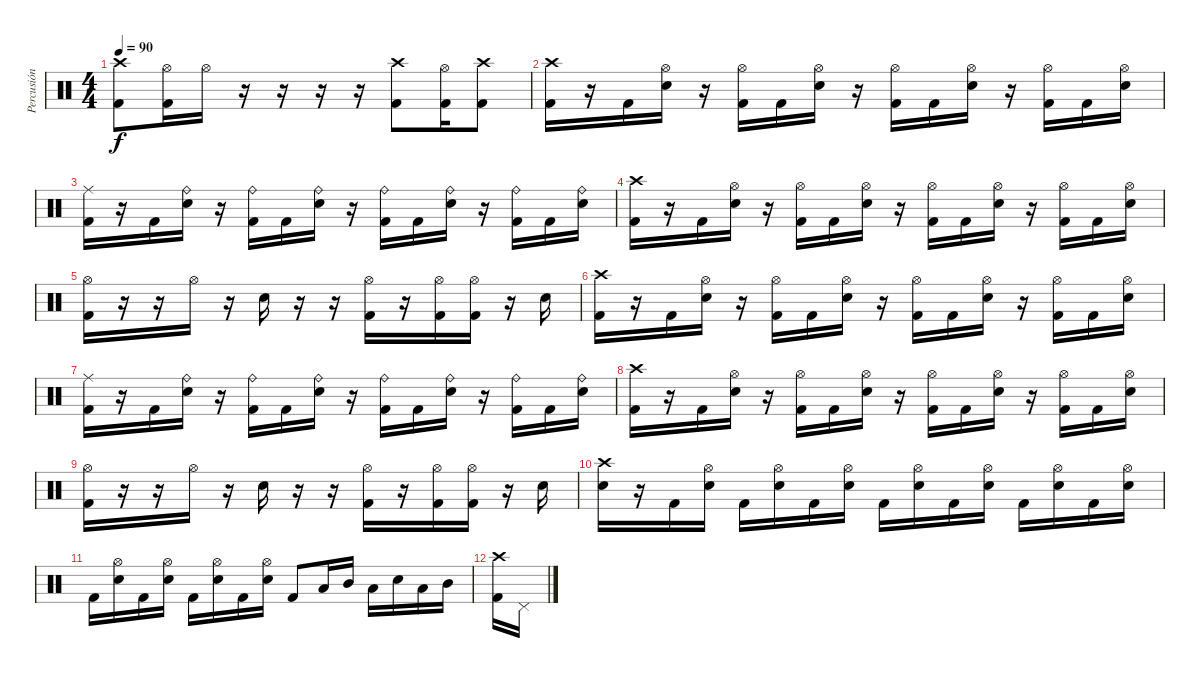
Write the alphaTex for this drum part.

\track ("Percusión" "Percusión") {instrument percussion}
\staff {score}
\articulation defaults
\ts (4 4)
\tempo 90
\clef neutral
\ks c
("Crash high (hit)" "Kick (hit) 2").8{dy f} ("Hi-Hat (open)" "Kick (hit) 2").16 "Hi-Hat (open)".16 r.16 r.16 r.16 r.16 ("Crash high (hit)" "Kick (hit) 2").8 ("Hi-Hat (open)" "Kick (hit) 2").16 ("Crash high (hit)" "Kick (hit) 2").8 |
("Crash high (hit)" "Kick (hit) 2").16 r.16 "Kick (hit) 2".16 ("Hi-Hat (open)" "Electric Snare (hit)").16 r.16 ("Hi-Hat (open)" "Kick (hit) 2").16 "Kick (hit) 2".16 ("Hi-Hat (open)" "Electric Snare (hit)").16 r.16 ("Hi-Hat (open)" "Kick (hit) 2").16 "Kick (hit) 2".16 ("Hi-Hat (open)" "Electric Snare (hit)").16 r.16 ("Hi-Hat (open)" "Kick (hit) 2").16 "Kick (hit) 2".16 ("Hi-Hat (open)" "Electric Snare (hit)").16 |
("Ride (middle)" "Kick (hit) 2").16 r.16 "Kick (hit) 2".16 ("Ride (bell)" "Electric Snare (hit)").16 r.16 ("Ride (bell)" "Kick (hit) 2").16 "Kick (hit) 2".16 ("Ride (bell)" "Electric Snare (hit)").16 r.16 ("Ride (bell)" "Kick (hit) 2").16 "Kick (hit) 2".16 ("Ride (bell)" "Electric Snare (hit)").16 r.16 ("Ride (bell)" "Kick (hit) 2").16 "Kick (hit) 2".16 ("Ride (bell)" "Electric Snare (hit)").16 |
("Crash high (hit)" "Kick (hit) 2").16 r.16 "Kick (hit) 2".16 ("Hi-Hat (open)" "Electric Snare (hit)").16 r.16 ("Hi-Hat (open)" "Kick (hit) 2").16 "Kick (hit) 2".16 ("Hi-Hat (open)" "Electric Snare (hit)").16 r.16 ("Hi-Hat (open)" "Kick (hit) 2").16 "Kick (hit) 2".16 ("Hi-Hat (open)" "Electric Snare (hit)").16 r.16 ("Hi-Hat (open)" "Kick (hit) 2").16 "Kick (hit) 2".16 ("Hi-Hat (open)" "Electric Snare (hit)").16 |
("Hi-Hat (open)" "Kick (hit) 2").16 r.16 r.16 "Hi-Hat (open)".16 r.16 "Electric Snare (hit)".16 r.16 r.16 ("Hi-Hat (open)" "Kick (hit) 2").16 r.16 ("Hi-Hat (open)" "Kick (hit) 2").16 ("Hi-Hat (open)" "Kick (hit) 2").16 r.16 "Electric Snare (hit)".16 |
("Crash high (hit)" "Kick (hit) 2").16 r.16 "Kick (hit) 2".16 ("Hi-Hat (open)" "Electric Snare (hit)").16 r.16 ("Hi-Hat (open)" "Kick (hit) 2").16 "Kick (hit) 2".16 ("Hi-Hat (open)" "Electric Snare (hit)").16 r.16 ("Hi-Hat (open)" "Kick (hit) 2").16 "Kick (hit) 2".16 ("Hi-Hat (open)" "Electric Snare (hit)").16 r.16 ("Hi-Hat (open)" "Kick (hit) 2").16 "Kick (hit) 2".16 ("Hi-Hat (open)" "Electric Snare (hit)").16 |
("Ride (middle)" "Kick (hit) 2").16 r.16 "Kick (hit) 2".16 ("Ride (bell)" "Electric Snare (hit)").16 r.16 ("Ride (bell)" "Kick (hit) 2").16 "Kick (hit) 2".16 ("Ride (bell)" "Electric Snare (hit)").16 r.16 ("Ride (bell)" "Kick (hit) 2").16 "Kick (hit) 2".16 ("Ride (bell)" "Electric Snare (hit)").16 r.16 ("Ride (bell)" "Kick (hit) 2").16 "Kick (hit) 2".16 ("Ride (bell)" "Electric Snare (hit)").16 |
("Crash high (hit)" "Kick (hit) 2").16 r.16 "Kick (hit) 2".16 ("Hi-Hat (open)" "Electric Snare (hit)").16 r.16 ("Hi-Hat (open)" "Kick (hit) 2").16 "Kick (hit) 2".16 ("Hi-Hat (open)" "Electric Snare (hit)").16 r.16 ("Hi-Hat (open)" "Kick (hit) 2").16 "Kick (hit) 2".16 ("Hi-Hat (open)" "Electric Snare (hit)").16 r.16 ("Hi-Hat (open)" "Kick (hit) 2").16 "Kick (hit) 2".16 ("Hi-Hat (open)" "Electric Snare (hit)").16 |
("Hi-Hat (open)" "Kick (hit) 2").16 r.16 r.16 "Hi-Hat (open)".16 r.16 "Electric Snare (hit)".16 r.16 r.16 ("Hi-Hat (open)" "Kick (hit) 2").16 r.16 ("Hi-Hat (open)" "Kick (hit) 2").16 ("Hi-Hat (open)" "Kick (hit) 2").16 r.16 "Electric Snare (hit)".16 |
("Crash high (hit)" "Electric Snare (hit)").16 r.16 "Kick (hit) 2".16 ("Hi-Hat (open)" "Electric Snare (hit)").16 "Kick (hit) 2".16 ("Hi-Hat (open)" "Electric Snare (hit)").16 "Kick (hit) 2".16 ("Hi-Hat (open)" "Electric Snare (hit)").16 "Kick (hit) 2".16 ("Hi-Hat (open)" "Electric Snare (hit)").16 "Kick (hit) 2".16 ("Hi-Hat (open)" "Electric Snare (hit)").16 "Kick (hit) 2".16 ("Hi-Hat (open)" "Electric Snare (hit)").16 "Kick (hit) 2".16 ("Hi-Hat (open)" "Electric Snare (hit)").16 |
"Kick (hit) 2".16 ("Hi-Hat (open)" "Electric Snare (hit)").16 "Kick (hit) 2".16 ("Hi-Hat (open)" "Electric Snare (hit)").16 "Kick (hit) 2".16 ("Hi-Hat (open)" "Electric Snare (hit)").16 "Kick (hit) 2".16 ("Hi-Hat (open)" "Electric Snare (hit)").16 "Kick (hit) 2".8 "Low Tom (hit)".16 "Mid Tom (hit)".16 "Low Tom (hit)".16 "Electric Snare (hit)".16 "Low Tom (hit)".16 "Mid Tom (hit)".16 |
("Crash high (hit)" "Kick (hit) 2").16 "Pedal Hi-Hat (hit)".16
